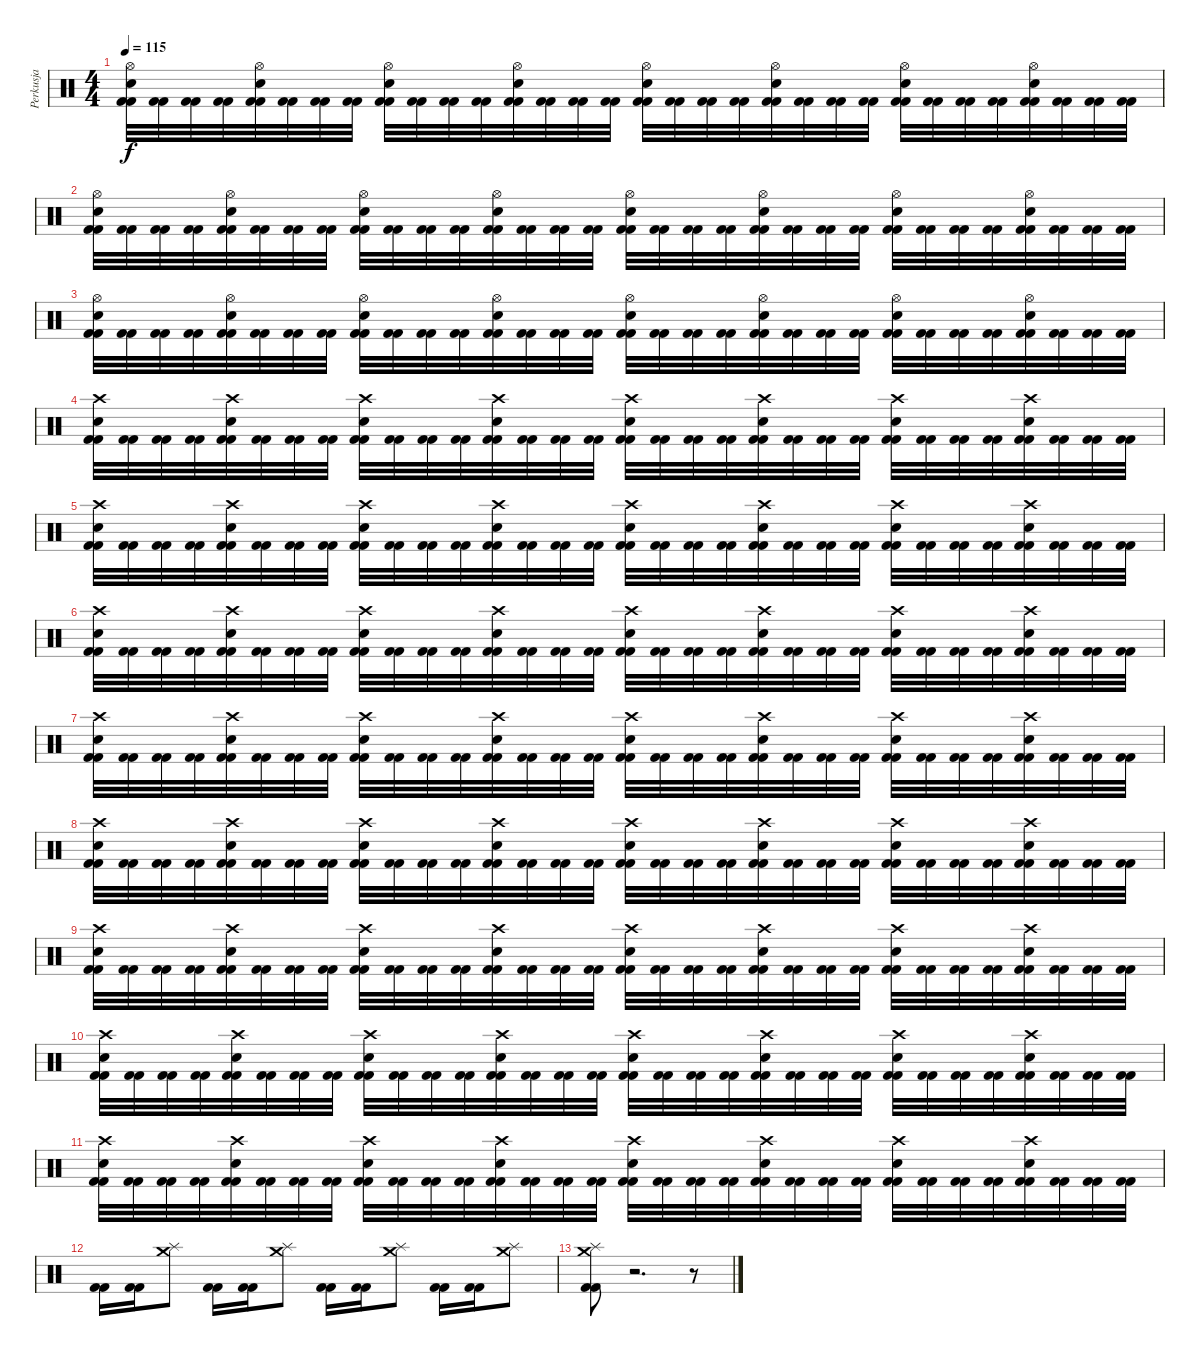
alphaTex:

\track ("Perkusja" "Perkusja") {instrument percussion}
\staff {score}
\articulation defaults
\ts (4 4)
\tempo 115
\clef neutral
\ks c
("Hi-Hat (open)" "Electric Snare (hit)" "Kick (hit) 2" "Kick (hit) 2").32{dy f} ("Kick (hit) 2" "Kick (hit) 2").32 ("Kick (hit) 2" "Kick (hit) 2").32 ("Kick (hit) 2" "Kick (hit) 2").32 ("Hi-Hat (open)" "Electric Snare (hit)" "Kick (hit) 2" "Kick (hit) 2").32 ("Kick (hit) 2" "Kick (hit) 2").32 ("Kick (hit) 2" "Kick (hit) 2").32 ("Kick (hit) 2" "Kick (hit) 2").32 ("Hi-Hat (open)" "Electric Snare (hit)" "Kick (hit) 2" "Kick (hit) 2").32 ("Kick (hit) 2" "Kick (hit) 2").32 ("Kick (hit) 2" "Kick (hit) 2").32 ("Kick (hit) 2" "Kick (hit) 2").32 ("Hi-Hat (open)" "Electric Snare (hit)" "Kick (hit) 2" "Kick (hit) 2").32 ("Kick (hit) 2" "Kick (hit) 2").32 ("Kick (hit) 2" "Kick (hit) 2").32 ("Kick (hit) 2" "Kick (hit) 2").32 ("Hi-Hat (open)" "Electric Snare (hit)" "Kick (hit) 2" "Kick (hit) 2").32 ("Kick (hit) 2" "Kick (hit) 2").32 ("Kick (hit) 2" "Kick (hit) 2").32 ("Kick (hit) 2" "Kick (hit) 2").32 ("Hi-Hat (open)" "Electric Snare (hit)" "Kick (hit) 2" "Kick (hit) 2").32 ("Kick (hit) 2" "Kick (hit) 2").32 ("Kick (hit) 2" "Kick (hit) 2").32 ("Kick (hit) 2" "Kick (hit) 2").32 ("Hi-Hat (open)" "Electric Snare (hit)" "Kick (hit) 2" "Kick (hit) 2").32 ("Kick (hit) 2" "Kick (hit) 2").32 ("Kick (hit) 2" "Kick (hit) 2").32 ("Kick (hit) 2" "Kick (hit) 2").32 ("Hi-Hat (open)" "Electric Snare (hit)" "Kick (hit) 2" "Kick (hit) 2").32 ("Kick (hit) 2" "Kick (hit) 2").32 ("Kick (hit) 2" "Kick (hit) 2").32 ("Kick (hit) 2" "Kick (hit) 2").32 |
("Hi-Hat (open)" "Electric Snare (hit)" "Kick (hit) 2" "Kick (hit) 2").32 ("Kick (hit) 2" "Kick (hit) 2").32 ("Kick (hit) 2" "Kick (hit) 2").32 ("Kick (hit) 2" "Kick (hit) 2").32 ("Hi-Hat (open)" "Electric Snare (hit)" "Kick (hit) 2" "Kick (hit) 2").32 ("Kick (hit) 2" "Kick (hit) 2").32 ("Kick (hit) 2" "Kick (hit) 2").32 ("Kick (hit) 2" "Kick (hit) 2").32 ("Hi-Hat (open)" "Electric Snare (hit)" "Kick (hit) 2" "Kick (hit) 2").32 ("Kick (hit) 2" "Kick (hit) 2").32 ("Kick (hit) 2" "Kick (hit) 2").32 ("Kick (hit) 2" "Kick (hit) 2").32 ("Hi-Hat (open)" "Electric Snare (hit)" "Kick (hit) 2" "Kick (hit) 2").32 ("Kick (hit) 2" "Kick (hit) 2").32 ("Kick (hit) 2" "Kick (hit) 2").32 ("Kick (hit) 2" "Kick (hit) 2").32 ("Hi-Hat (open)" "Electric Snare (hit)" "Kick (hit) 2" "Kick (hit) 2").32 ("Kick (hit) 2" "Kick (hit) 2").32 ("Kick (hit) 2" "Kick (hit) 2").32 ("Kick (hit) 2" "Kick (hit) 2").32 ("Hi-Hat (open)" "Electric Snare (hit)" "Kick (hit) 2" "Kick (hit) 2").32 ("Kick (hit) 2" "Kick (hit) 2").32 ("Kick (hit) 2" "Kick (hit) 2").32 ("Kick (hit) 2" "Kick (hit) 2").32 ("Hi-Hat (open)" "Electric Snare (hit)" "Kick (hit) 2" "Kick (hit) 2").32 ("Kick (hit) 2" "Kick (hit) 2").32 ("Kick (hit) 2" "Kick (hit) 2").32 ("Kick (hit) 2" "Kick (hit) 2").32 ("Hi-Hat (open)" "Electric Snare (hit)" "Kick (hit) 2" "Kick (hit) 2").32 ("Kick (hit) 2" "Kick (hit) 2").32 ("Kick (hit) 2" "Kick (hit) 2").32 ("Kick (hit) 2" "Kick (hit) 2").32 |
("Hi-Hat (open)" "Electric Snare (hit)" "Kick (hit) 2" "Kick (hit) 2").32 ("Kick (hit) 2" "Kick (hit) 2").32 ("Kick (hit) 2" "Kick (hit) 2").32 ("Kick (hit) 2" "Kick (hit) 2").32 ("Hi-Hat (open)" "Electric Snare (hit)" "Kick (hit) 2" "Kick (hit) 2").32 ("Kick (hit) 2" "Kick (hit) 2").32 ("Kick (hit) 2" "Kick (hit) 2").32 ("Kick (hit) 2" "Kick (hit) 2").32 ("Hi-Hat (open)" "Electric Snare (hit)" "Kick (hit) 2" "Kick (hit) 2").32 ("Kick (hit) 2" "Kick (hit) 2").32 ("Kick (hit) 2" "Kick (hit) 2").32 ("Kick (hit) 2" "Kick (hit) 2").32 ("Hi-Hat (open)" "Electric Snare (hit)" "Kick (hit) 2" "Kick (hit) 2").32 ("Kick (hit) 2" "Kick (hit) 2").32 ("Kick (hit) 2" "Kick (hit) 2").32 ("Kick (hit) 2" "Kick (hit) 2").32 ("Hi-Hat (open)" "Electric Snare (hit)" "Kick (hit) 2" "Kick (hit) 2").32 ("Kick (hit) 2" "Kick (hit) 2").32 ("Kick (hit) 2" "Kick (hit) 2").32 ("Kick (hit) 2" "Kick (hit) 2").32 ("Hi-Hat (open)" "Electric Snare (hit)" "Kick (hit) 2" "Kick (hit) 2").32 ("Kick (hit) 2" "Kick (hit) 2").32 ("Kick (hit) 2" "Kick (hit) 2").32 ("Kick (hit) 2" "Kick (hit) 2").32 ("Hi-Hat (open)" "Electric Snare (hit)" "Kick (hit) 2" "Kick (hit) 2").32 ("Kick (hit) 2" "Kick (hit) 2").32 ("Kick (hit) 2" "Kick (hit) 2").32 ("Kick (hit) 2" "Kick (hit) 2").32 ("Hi-Hat (open)" "Electric Snare (hit)" "Kick (hit) 2" "Kick (hit) 2").32 ("Kick (hit) 2" "Kick (hit) 2").32 ("Kick (hit) 2" "Kick (hit) 2").32 ("Kick (hit) 2" "Kick (hit) 2").32 |
("Crash high (hit)" "Electric Snare (hit)" "Kick (hit) 2" "Kick (hit) 2").32 ("Kick (hit) 2" "Kick (hit) 2").32 ("Kick (hit) 2" "Kick (hit) 2").32 ("Kick (hit) 2" "Kick (hit) 2").32 ("Crash high (hit)" "Electric Snare (hit)" "Kick (hit) 2" "Kick (hit) 2").32 ("Kick (hit) 2" "Kick (hit) 2").32 ("Kick (hit) 2" "Kick (hit) 2").32 ("Kick (hit) 2" "Kick (hit) 2").32 ("Crash high (hit)" "Electric Snare (hit)" "Kick (hit) 2" "Kick (hit) 2").32 ("Kick (hit) 2" "Kick (hit) 2").32 ("Kick (hit) 2" "Kick (hit) 2").32 ("Kick (hit) 2" "Kick (hit) 2").32 ("Crash high (hit)" "Electric Snare (hit)" "Kick (hit) 2" "Kick (hit) 2").32 ("Kick (hit) 2" "Kick (hit) 2").32 ("Kick (hit) 2" "Kick (hit) 2").32 ("Kick (hit) 2" "Kick (hit) 2").32 ("Crash high (hit)" "Electric Snare (hit)" "Kick (hit) 2" "Kick (hit) 2").32 ("Kick (hit) 2" "Kick (hit) 2").32 ("Kick (hit) 2" "Kick (hit) 2").32 ("Kick (hit) 2" "Kick (hit) 2").32 ("Crash high (hit)" "Electric Snare (hit)" "Kick (hit) 2" "Kick (hit) 2").32 ("Kick (hit) 2" "Kick (hit) 2").32 ("Kick (hit) 2" "Kick (hit) 2").32 ("Kick (hit) 2" "Kick (hit) 2").32 ("Crash high (hit)" "Electric Snare (hit)" "Kick (hit) 2" "Kick (hit) 2").32 ("Kick (hit) 2" "Kick (hit) 2").32 ("Kick (hit) 2" "Kick (hit) 2").32 ("Kick (hit) 2" "Kick (hit) 2").32 ("Crash high (hit)" "Electric Snare (hit)" "Kick (hit) 2" "Kick (hit) 2").32 ("Kick (hit) 2" "Kick (hit) 2").32 ("Kick (hit) 2" "Kick (hit) 2").32 ("Kick (hit) 2" "Kick (hit) 2").32 |
("Crash high (hit)" "Electric Snare (hit)" "Kick (hit) 2" "Kick (hit) 2").32 ("Kick (hit) 2" "Kick (hit) 2").32 ("Kick (hit) 2" "Kick (hit) 2").32 ("Kick (hit) 2" "Kick (hit) 2").32 ("Crash high (hit)" "Electric Snare (hit)" "Kick (hit) 2" "Kick (hit) 2").32 ("Kick (hit) 2" "Kick (hit) 2").32 ("Kick (hit) 2" "Kick (hit) 2").32 ("Kick (hit) 2" "Kick (hit) 2").32 ("Crash high (hit)" "Electric Snare (hit)" "Kick (hit) 2" "Kick (hit) 2").32 ("Kick (hit) 2" "Kick (hit) 2").32 ("Kick (hit) 2" "Kick (hit) 2").32 ("Kick (hit) 2" "Kick (hit) 2").32 ("Crash high (hit)" "Electric Snare (hit)" "Kick (hit) 2" "Kick (hit) 2").32 ("Kick (hit) 2" "Kick (hit) 2").32 ("Kick (hit) 2" "Kick (hit) 2").32 ("Kick (hit) 2" "Kick (hit) 2").32 ("Crash high (hit)" "Electric Snare (hit)" "Kick (hit) 2" "Kick (hit) 2").32 ("Kick (hit) 2" "Kick (hit) 2").32 ("Kick (hit) 2" "Kick (hit) 2").32 ("Kick (hit) 2" "Kick (hit) 2").32 ("Crash high (hit)" "Electric Snare (hit)" "Kick (hit) 2" "Kick (hit) 2").32 ("Kick (hit) 2" "Kick (hit) 2").32 ("Kick (hit) 2" "Kick (hit) 2").32 ("Kick (hit) 2" "Kick (hit) 2").32 ("Crash high (hit)" "Electric Snare (hit)" "Kick (hit) 2" "Kick (hit) 2").32 ("Kick (hit) 2" "Kick (hit) 2").32 ("Kick (hit) 2" "Kick (hit) 2").32 ("Kick (hit) 2" "Kick (hit) 2").32 ("Crash high (hit)" "Electric Snare (hit)" "Kick (hit) 2" "Kick (hit) 2").32 ("Kick (hit) 2" "Kick (hit) 2").32 ("Kick (hit) 2" "Kick (hit) 2").32 ("Kick (hit) 2" "Kick (hit) 2").32 |
("Crash high (hit)" "Electric Snare (hit)" "Kick (hit) 2" "Kick (hit) 2").32 ("Kick (hit) 2" "Kick (hit) 2").32 ("Kick (hit) 2" "Kick (hit) 2").32 ("Kick (hit) 2" "Kick (hit) 2").32 ("Crash high (hit)" "Electric Snare (hit)" "Kick (hit) 2" "Kick (hit) 2").32 ("Kick (hit) 2" "Kick (hit) 2").32 ("Kick (hit) 2" "Kick (hit) 2").32 ("Kick (hit) 2" "Kick (hit) 2").32 ("Crash high (hit)" "Electric Snare (hit)" "Kick (hit) 2" "Kick (hit) 2").32 ("Kick (hit) 2" "Kick (hit) 2").32 ("Kick (hit) 2" "Kick (hit) 2").32 ("Kick (hit) 2" "Kick (hit) 2").32 ("Crash high (hit)" "Electric Snare (hit)" "Kick (hit) 2" "Kick (hit) 2").32 ("Kick (hit) 2" "Kick (hit) 2").32 ("Kick (hit) 2" "Kick (hit) 2").32 ("Kick (hit) 2" "Kick (hit) 2").32 ("Crash high (hit)" "Electric Snare (hit)" "Kick (hit) 2" "Kick (hit) 2").32 ("Kick (hit) 2" "Kick (hit) 2").32 ("Kick (hit) 2" "Kick (hit) 2").32 ("Kick (hit) 2" "Kick (hit) 2").32 ("Crash high (hit)" "Electric Snare (hit)" "Kick (hit) 2" "Kick (hit) 2").32 ("Kick (hit) 2" "Kick (hit) 2").32 ("Kick (hit) 2" "Kick (hit) 2").32 ("Kick (hit) 2" "Kick (hit) 2").32 ("Crash high (hit)" "Electric Snare (hit)" "Kick (hit) 2" "Kick (hit) 2").32 ("Kick (hit) 2" "Kick (hit) 2").32 ("Kick (hit) 2" "Kick (hit) 2").32 ("Kick (hit) 2" "Kick (hit) 2").32 ("Crash high (hit)" "Electric Snare (hit)" "Kick (hit) 2" "Kick (hit) 2").32 ("Kick (hit) 2" "Kick (hit) 2").32 ("Kick (hit) 2" "Kick (hit) 2").32 ("Kick (hit) 2" "Kick (hit) 2").32 |
("Crash high (hit)" "Electric Snare (hit)" "Kick (hit) 2" "Kick (hit) 2").32 ("Kick (hit) 2" "Kick (hit) 2").32 ("Kick (hit) 2" "Kick (hit) 2").32 ("Kick (hit) 2" "Kick (hit) 2").32 ("Crash high (hit)" "Electric Snare (hit)" "Kick (hit) 2" "Kick (hit) 2").32 ("Kick (hit) 2" "Kick (hit) 2").32 ("Kick (hit) 2" "Kick (hit) 2").32 ("Kick (hit) 2" "Kick (hit) 2").32 ("Crash high (hit)" "Electric Snare (hit)" "Kick (hit) 2" "Kick (hit) 2").32 ("Kick (hit) 2" "Kick (hit) 2").32 ("Kick (hit) 2" "Kick (hit) 2").32 ("Kick (hit) 2" "Kick (hit) 2").32 ("Crash high (hit)" "Electric Snare (hit)" "Kick (hit) 2" "Kick (hit) 2").32 ("Kick (hit) 2" "Kick (hit) 2").32 ("Kick (hit) 2" "Kick (hit) 2").32 ("Kick (hit) 2" "Kick (hit) 2").32 ("Crash high (hit)" "Electric Snare (hit)" "Kick (hit) 2" "Kick (hit) 2").32 ("Kick (hit) 2" "Kick (hit) 2").32 ("Kick (hit) 2" "Kick (hit) 2").32 ("Kick (hit) 2" "Kick (hit) 2").32 ("Crash high (hit)" "Electric Snare (hit)" "Kick (hit) 2" "Kick (hit) 2").32 ("Kick (hit) 2" "Kick (hit) 2").32 ("Kick (hit) 2" "Kick (hit) 2").32 ("Kick (hit) 2" "Kick (hit) 2").32 ("Crash high (hit)" "Electric Snare (hit)" "Kick (hit) 2" "Kick (hit) 2").32 ("Kick (hit) 2" "Kick (hit) 2").32 ("Kick (hit) 2" "Kick (hit) 2").32 ("Kick (hit) 2" "Kick (hit) 2").32 ("Crash high (hit)" "Electric Snare (hit)" "Kick (hit) 2" "Kick (hit) 2").32 ("Kick (hit) 2" "Kick (hit) 2").32 ("Kick (hit) 2" "Kick (hit) 2").32 ("Kick (hit) 2" "Kick (hit) 2").32 |
("Crash high (hit)" "Electric Snare (hit)" "Kick (hit) 2" "Kick (hit) 2").32 ("Kick (hit) 2" "Kick (hit) 2").32 ("Kick (hit) 2" "Kick (hit) 2").32 ("Kick (hit) 2" "Kick (hit) 2").32 ("Crash high (hit)" "Electric Snare (hit)" "Kick (hit) 2" "Kick (hit) 2").32 ("Kick (hit) 2" "Kick (hit) 2").32 ("Kick (hit) 2" "Kick (hit) 2").32 ("Kick (hit) 2" "Kick (hit) 2").32 ("Crash high (hit)" "Electric Snare (hit)" "Kick (hit) 2" "Kick (hit) 2").32 ("Kick (hit) 2" "Kick (hit) 2").32 ("Kick (hit) 2" "Kick (hit) 2").32 ("Kick (hit) 2" "Kick (hit) 2").32 ("Crash high (hit)" "Electric Snare (hit)" "Kick (hit) 2" "Kick (hit) 2").32 ("Kick (hit) 2" "Kick (hit) 2").32 ("Kick (hit) 2" "Kick (hit) 2").32 ("Kick (hit) 2" "Kick (hit) 2").32 ("Crash high (hit)" "Electric Snare (hit)" "Kick (hit) 2" "Kick (hit) 2").32 ("Kick (hit) 2" "Kick (hit) 2").32 ("Kick (hit) 2" "Kick (hit) 2").32 ("Kick (hit) 2" "Kick (hit) 2").32 ("Crash high (hit)" "Electric Snare (hit)" "Kick (hit) 2" "Kick (hit) 2").32 ("Kick (hit) 2" "Kick (hit) 2").32 ("Kick (hit) 2" "Kick (hit) 2").32 ("Kick (hit) 2" "Kick (hit) 2").32 ("Crash high (hit)" "Electric Snare (hit)" "Kick (hit) 2" "Kick (hit) 2").32 ("Kick (hit) 2" "Kick (hit) 2").32 ("Kick (hit) 2" "Kick (hit) 2").32 ("Kick (hit) 2" "Kick (hit) 2").32 ("Crash high (hit)" "Electric Snare (hit)" "Kick (hit) 2" "Kick (hit) 2").32 ("Kick (hit) 2" "Kick (hit) 2").32 ("Kick (hit) 2" "Kick (hit) 2").32 ("Kick (hit) 2" "Kick (hit) 2").32 |
("Crash high (hit)" "Electric Snare (hit)" "Kick (hit) 2" "Kick (hit) 2").32 ("Kick (hit) 2" "Kick (hit) 2").32 ("Kick (hit) 2" "Kick (hit) 2").32 ("Kick (hit) 2" "Kick (hit) 2").32 ("Crash high (hit)" "Electric Snare (hit)" "Kick (hit) 2" "Kick (hit) 2").32 ("Kick (hit) 2" "Kick (hit) 2").32 ("Kick (hit) 2" "Kick (hit) 2").32 ("Kick (hit) 2" "Kick (hit) 2").32 ("Crash high (hit)" "Electric Snare (hit)" "Kick (hit) 2" "Kick (hit) 2").32 ("Kick (hit) 2" "Kick (hit) 2").32 ("Kick (hit) 2" "Kick (hit) 2").32 ("Kick (hit) 2" "Kick (hit) 2").32 ("Crash high (hit)" "Electric Snare (hit)" "Kick (hit) 2" "Kick (hit) 2").32 ("Kick (hit) 2" "Kick (hit) 2").32 ("Kick (hit) 2" "Kick (hit) 2").32 ("Kick (hit) 2" "Kick (hit) 2").32 ("Crash high (hit)" "Electric Snare (hit)" "Kick (hit) 2" "Kick (hit) 2").32 ("Kick (hit) 2" "Kick (hit) 2").32 ("Kick (hit) 2" "Kick (hit) 2").32 ("Kick (hit) 2" "Kick (hit) 2").32 ("Crash high (hit)" "Electric Snare (hit)" "Kick (hit) 2" "Kick (hit) 2").32 ("Kick (hit) 2" "Kick (hit) 2").32 ("Kick (hit) 2" "Kick (hit) 2").32 ("Kick (hit) 2" "Kick (hit) 2").32 ("Crash high (hit)" "Electric Snare (hit)" "Kick (hit) 2" "Kick (hit) 2").32 ("Kick (hit) 2" "Kick (hit) 2").32 ("Kick (hit) 2" "Kick (hit) 2").32 ("Kick (hit) 2" "Kick (hit) 2").32 ("Crash high (hit)" "Electric Snare (hit)" "Kick (hit) 2" "Kick (hit) 2").32 ("Kick (hit) 2" "Kick (hit) 2").32 ("Kick (hit) 2" "Kick (hit) 2").32 ("Kick (hit) 2" "Kick (hit) 2").32 |
("Crash high (hit)" "Electric Snare (hit)" "Kick (hit) 2" "Kick (hit) 2").32 ("Kick (hit) 2" "Kick (hit) 2").32 ("Kick (hit) 2" "Kick (hit) 2").32 ("Kick (hit) 2" "Kick (hit) 2").32 ("Crash high (hit)" "Electric Snare (hit)" "Kick (hit) 2" "Kick (hit) 2").32 ("Kick (hit) 2" "Kick (hit) 2").32 ("Kick (hit) 2" "Kick (hit) 2").32 ("Kick (hit) 2" "Kick (hit) 2").32 ("Crash high (hit)" "Electric Snare (hit)" "Kick (hit) 2" "Kick (hit) 2").32 ("Kick (hit) 2" "Kick (hit) 2").32 ("Kick (hit) 2" "Kick (hit) 2").32 ("Kick (hit) 2" "Kick (hit) 2").32 ("Crash high (hit)" "Electric Snare (hit)" "Kick (hit) 2" "Kick (hit) 2").32 ("Kick (hit) 2" "Kick (hit) 2").32 ("Kick (hit) 2" "Kick (hit) 2").32 ("Kick (hit) 2" "Kick (hit) 2").32 ("Crash high (hit)" "Electric Snare (hit)" "Kick (hit) 2" "Kick (hit) 2").32 ("Kick (hit) 2" "Kick (hit) 2").32 ("Kick (hit) 2" "Kick (hit) 2").32 ("Kick (hit) 2" "Kick (hit) 2").32 ("Crash high (hit)" "Electric Snare (hit)" "Kick (hit) 2" "Kick (hit) 2").32 ("Kick (hit) 2" "Kick (hit) 2").32 ("Kick (hit) 2" "Kick (hit) 2").32 ("Kick (hit) 2" "Kick (hit) 2").32 ("Crash high (hit)" "Electric Snare (hit)" "Kick (hit) 2" "Kick (hit) 2").32 ("Kick (hit) 2" "Kick (hit) 2").32 ("Kick (hit) 2" "Kick (hit) 2").32 ("Kick (hit) 2" "Kick (hit) 2").32 ("Crash high (hit)" "Electric Snare (hit)" "Kick (hit) 2" "Kick (hit) 2").32 ("Kick (hit) 2" "Kick (hit) 2").32 ("Kick (hit) 2" "Kick (hit) 2").32 ("Kick (hit) 2" "Kick (hit) 2").32 |
("Crash high (hit)" "Electric Snare (hit)" "Kick (hit) 2" "Kick (hit) 2").32 ("Kick (hit) 2" "Kick (hit) 2").32 ("Kick (hit) 2" "Kick (hit) 2").32 ("Kick (hit) 2" "Kick (hit) 2").32 ("Crash high (hit)" "Electric Snare (hit)" "Kick (hit) 2" "Kick (hit) 2").32 ("Kick (hit) 2" "Kick (hit) 2").32 ("Kick (hit) 2" "Kick (hit) 2").32 ("Kick (hit) 2" "Kick (hit) 2").32 ("Crash high (hit)" "Electric Snare (hit)" "Kick (hit) 2" "Kick (hit) 2").32 ("Kick (hit) 2" "Kick (hit) 2").32 ("Kick (hit) 2" "Kick (hit) 2").32 ("Kick (hit) 2" "Kick (hit) 2").32 ("Crash high (hit)" "Electric Snare (hit)" "Kick (hit) 2" "Kick (hit) 2").32 ("Kick (hit) 2" "Kick (hit) 2").32 ("Kick (hit) 2" "Kick (hit) 2").32 ("Kick (hit) 2" "Kick (hit) 2").32 ("Crash high (hit)" "Electric Snare (hit)" "Kick (hit) 2" "Kick (hit) 2").32 ("Kick (hit) 2" "Kick (hit) 2").32 ("Kick (hit) 2" "Kick (hit) 2").32 ("Kick (hit) 2" "Kick (hit) 2").32 ("Crash high (hit)" "Electric Snare (hit)" "Kick (hit) 2" "Kick (hit) 2").32 ("Kick (hit) 2" "Kick (hit) 2").32 ("Kick (hit) 2" "Kick (hit) 2").32 ("Kick (hit) 2" "Kick (hit) 2").32 ("Crash high (hit)" "Electric Snare (hit)" "Kick (hit) 2" "Kick (hit) 2").32 ("Kick (hit) 2" "Kick (hit) 2").32 ("Kick (hit) 2" "Kick (hit) 2").32 ("Kick (hit) 2" "Kick (hit) 2").32 ("Crash high (hit)" "Electric Snare (hit)" "Kick (hit) 2" "Kick (hit) 2").32 ("Kick (hit) 2" "Kick (hit) 2").32 ("Kick (hit) 2" "Kick (hit) 2").32 ("Kick (hit) 2" "Kick (hit) 2").32 |
("Kick (hit) 2" "Kick (hit) 2").16 ("Kick (hit) 2" "Kick (hit) 2").16 ("Crash medium (hit)" "Splash (hit)").8 ("Kick (hit) 2" "Kick (hit) 2").16 ("Kick (hit) 2" "Kick (hit) 2").16 ("Crash medium (hit)" "Splash (hit)").8 ("Kick (hit) 2" "Kick (hit) 2").16 ("Kick (hit) 2" "Kick (hit) 2").16 ("Crash medium (hit)" "Splash (hit)").8 ("Kick (hit) 2" "Kick (hit) 2").16 ("Kick (hit) 2" "Kick (hit) 2").16 ("Crash medium (hit)" "Splash (hit)").8 |
("Crash medium (hit)" "Splash (hit)" "Kick (hit) 2" "Kick (hit) 2").8 r.2{d} r.8
